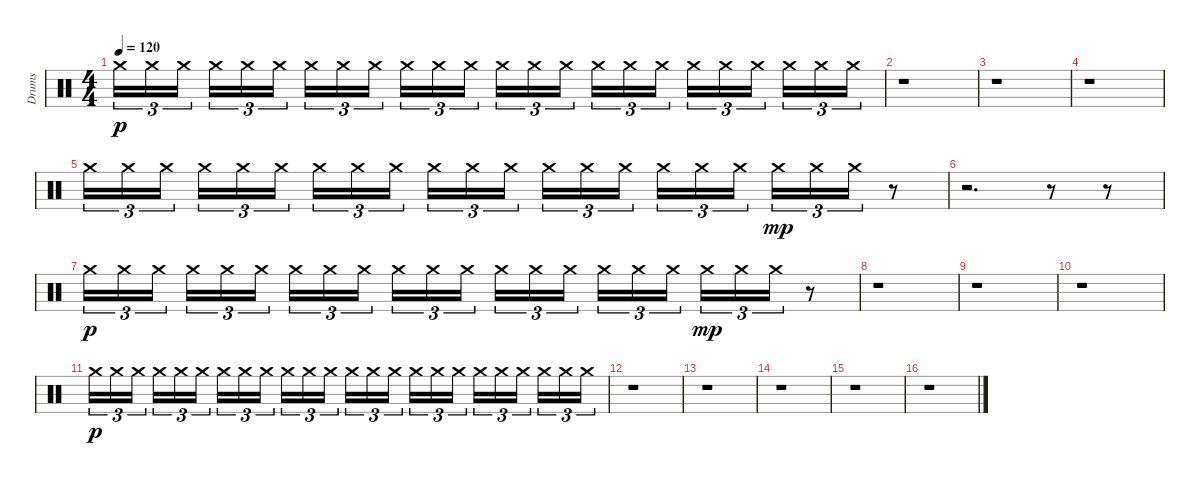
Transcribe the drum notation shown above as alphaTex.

\track ("Drums" "Drums") {instrument percussion}
\staff {score}
\articulation defaults
\ts (4 4)
\tempo 120
\clef neutral
\ks c "Crash medium (hit)".16{tu (3 2) dy p volume 16} "Crash medium (hit)".16{tu (3 2)} "Crash medium (hit)".16{tu (3 2)} "Crash medium (hit)".16{tu (3 2)} "Crash medium (hit)".16{tu (3 2)} "Crash medium (hit)".16{tu (3 2)} "Crash medium (hit)".16{tu (3 2)} "Crash medium (hit)".16{tu (3 2)} "Crash medium (hit)".16{tu (3 2)} "Crash medium (hit)".16{tu (3 2)} "Crash medium (hit)".16{tu (3 2)} "Crash medium (hit)".16{tu (3 2)} "Crash medium (hit)".16{tu (3 2)} "Crash medium (hit)".16{tu (3 2)} "Crash medium (hit)".16{tu (3 2)} "Crash medium (hit)".16{tu (3 2)} "Crash medium (hit)".16{tu (3 2)} "Crash medium (hit)".16{tu (3 2)} "Crash medium (hit)".16{tu (3 2)} "Crash medium (hit)".16{tu (3 2)} "Crash medium (hit)".16{tu (3 2)} "Crash medium (hit)".16{tu (3 2)} "Crash medium (hit)".16{tu (3 2)} "Crash medium (hit)".16{tu (3 2)}
|
r.1 |
r.1 |
r.1{volume 0} |
"Crash medium (hit)".16{tu (3 2) volume 16} "Crash medium (hit)".16{tu (3 2)} "Crash medium (hit)".16{tu (3 2)} "Crash medium (hit)".16{tu (3 2)} "Crash medium (hit)".16{tu (3 2)} "Crash medium (hit)".16{tu (3 2)} "Crash medium (hit)".16{tu (3 2)} "Crash medium (hit)".16{tu (3 2)} "Crash medium (hit)".16{tu (3 2)} "Crash medium (hit)".16{tu (3 2)} "Crash medium (hit)".16{tu (3 2)} "Crash medium (hit)".16{tu (3 2)} "Crash medium (hit)".16{tu (3 2)} "Crash medium (hit)".16{tu (3 2)} "Crash medium (hit)".16{tu (3 2)} "Crash medium (hit)".16{tu (3 2)} "Crash medium (hit)".16{tu (3 2)} "Crash medium (hit)".16{tu (3 2)} "Crash medium (hit)".16{tu (3 2) dy mp} "Crash medium (hit)".16{tu (3 2)} "Crash medium (hit)".16{tu (3 2)} r.8 |
r.2{d} r.8 r.8{volume 0} |
"Crash medium (hit)".16{tu (3 2) dy p volume 16} "Crash medium (hit)".16{tu (3 2)} "Crash medium (hit)".16{tu (3 2)} "Crash medium (hit)".16{tu (3 2)} "Crash medium (hit)".16{tu (3 2)} "Crash medium (hit)".16{tu (3 2)} "Crash medium (hit)".16{tu (3 2)} "Crash medium (hit)".16{tu (3 2)} "Crash medium (hit)".16{tu (3 2)} "Crash medium (hit)".16{tu (3 2)} "Crash medium (hit)".16{tu (3 2)} "Crash medium (hit)".16{tu (3 2)} "Crash medium (hit)".16{tu (3 2)} "Crash medium (hit)".16{tu (3 2)} "Crash medium (hit)".16{tu (3 2)} "Crash medium (hit)".16{tu (3 2)} "Crash medium (hit)".16{tu (3 2)} "Crash medium (hit)".16{tu (3 2)} "Crash medium (hit)".16{tu (3 2) dy mp} "Crash medium (hit)".16{tu (3 2)} "Crash medium (hit)".16{tu (3 2)} r.8 |
r.1 |
r.1 |
r.1{volume 0} |
"Crash medium (hit)".16{tu (3 2) dy p volume 16} "Crash medium (hit)".16{tu (3 2)} "Crash medium (hit)".16{tu (3 2)} "Crash medium (hit)".16{tu (3 2)} "Crash medium (hit)".16{tu (3 2)} "Crash medium (hit)".16{tu (3 2)} "Crash medium (hit)".16{tu (3 2)} "Crash medium (hit)".16{tu (3 2)} "Crash medium (hit)".16{tu (3 2)} "Crash medium (hit)".16{tu (3 2)} "Crash medium (hit)".16{tu (3 2)} "Crash medium (hit)".16{tu (3 2)} "Crash medium (hit)".16{tu (3 2)} "Crash medium (hit)".16{tu (3 2)} "Crash medium (hit)".16{tu (3 2)} "Crash medium (hit)".16{tu (3 2)} "Crash medium (hit)".16{tu (3 2)} "Crash medium (hit)".16{tu (3 2)} "Crash medium (hit)".16{tu (3 2)} "Crash medium (hit)".16{tu (3 2)} "Crash medium (hit)".16{tu (3 2)} "Crash medium (hit)".16{tu (3 2)} "Crash medium (hit)".16{tu (3 2)} "Crash medium (hit)".16{tu (3 2)} |
r.1 |
r.1 |
r.1 |
r.1 |
r.1
